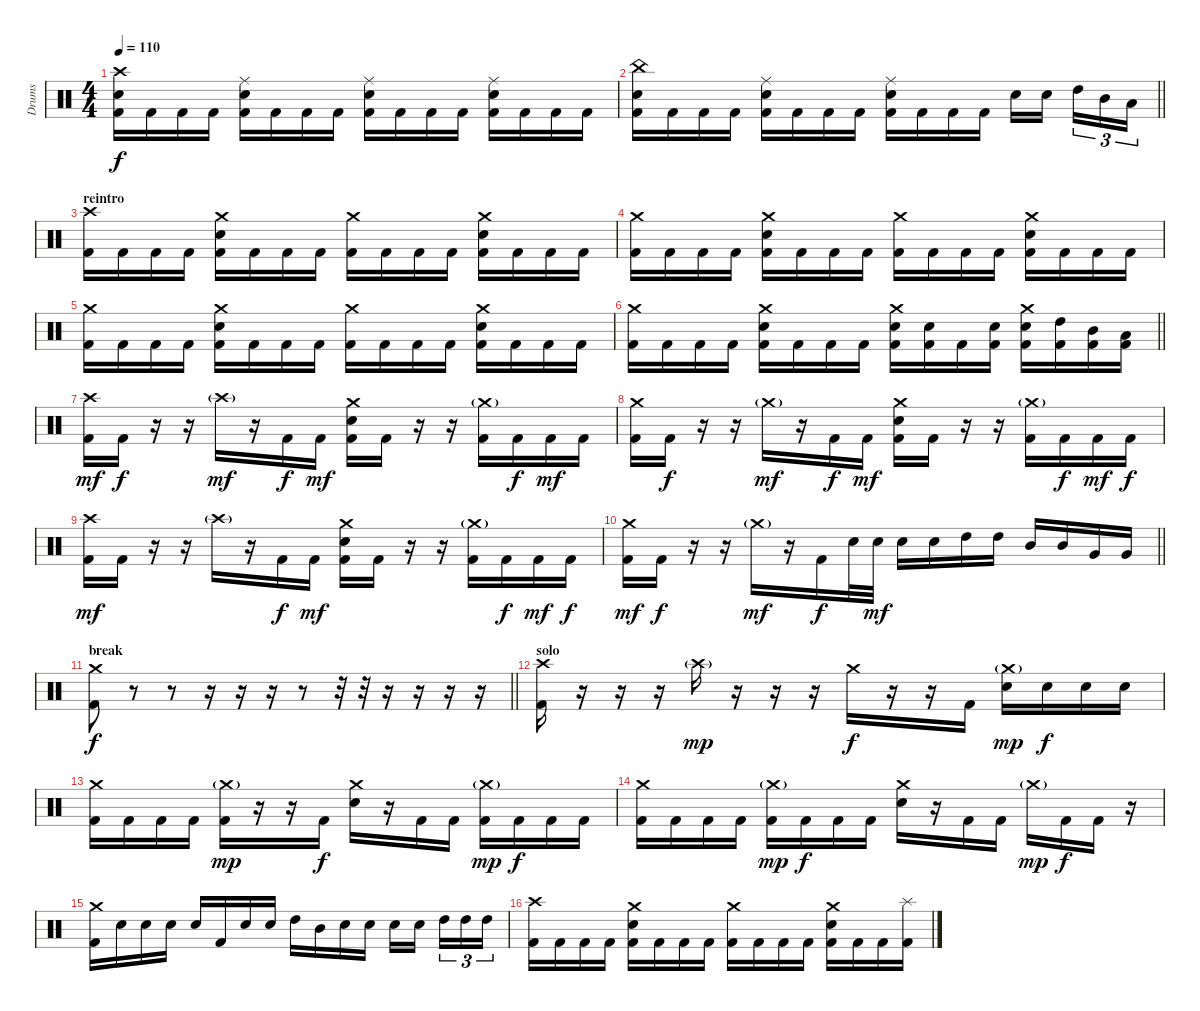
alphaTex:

\track ("Drums" "Drums") {instrument percussion}
\staff {score}
\articulation defaults
\ts (4 4)
\tempo 110
\clef neutral
\ks c
("Crash high (hit)" "Electric Snare (hit)" "Kick (hit) 2").16{dy f} "Kick (hit) 2".16 "Kick (hit) 2".16 "Kick (hit) 2".16 ("Ride (middle)" "Electric Snare (hit)" "Kick (hit) 2").16 "Kick (hit) 2".16 "Kick (hit) 2".16 "Kick (hit) 2".16 ("Ride (middle)" "Electric Snare (hit)" "Kick (hit) 2").16 "Kick (hit) 2".16 "Kick (hit) 2".16 "Kick (hit) 2".16 ("Ride (middle)" "Electric Snare (hit)" "Kick (hit) 2").16 "Kick (hit) 2".16 "Kick (hit) 2".16 "Kick (hit) 2".16 |
\barLineRight lightlight
("China (hit)" "Electric Snare (hit)" "Kick (hit) 2").16 "Kick (hit) 2".16 "Kick (hit) 2".16 "Kick (hit) 2".16 ("Ride (middle)" "Electric Snare (hit)" "Kick (hit) 2").16 "Kick (hit) 2".16 "Kick (hit) 2".16 "Kick (hit) 2".16 ("Ride (middle)" "Electric Snare (hit)" "Kick (hit) 2").16 "Kick (hit) 2".16 "Kick (hit) 2".16 "Kick (hit) 2".16 "Electric Snare (hit)".16 "Electric Snare (hit)".16{beam splitsecondary} "High Tom (hit)".16{tu (3 2)} "Mid Tom (hit)".16{tu (3 2)} "Low Tom (hit)".16{tu (3 2)} |
\section ("" "reintro")
("Crash high (hit)" "Kick (hit) 2").16 "Kick (hit) 2".16 "Kick (hit) 2".16 "Kick (hit) 2".16 ("Crash medium (hit)" "Electric Snare (hit)" "Kick (hit) 2").16 "Kick (hit) 2".16 "Kick (hit) 2".16 "Kick (hit) 2".16 ("Crash medium (hit)" "Kick (hit) 2").16 "Kick (hit) 2".16 "Kick (hit) 2".16 "Kick (hit) 2".16 ("Crash medium (hit)" "Electric Snare (hit)" "Kick (hit) 2").16 "Kick (hit) 2".16 "Kick (hit) 2".16 "Kick (hit) 2".16 |
("Crash medium (hit)" "Kick (hit) 2").16 "Kick (hit) 2".16 "Kick (hit) 2".16 "Kick (hit) 2".16 ("Crash medium (hit)" "Electric Snare (hit)" "Kick (hit) 2").16 "Kick (hit) 2".16 "Kick (hit) 2".16 "Kick (hit) 2".16 ("Crash medium (hit)" "Kick (hit) 2").16 "Kick (hit) 2".16 "Kick (hit) 2".16 "Kick (hit) 2".16 ("Crash medium (hit)" "Electric Snare (hit)" "Kick (hit) 2").16 "Kick (hit) 2".16 "Kick (hit) 2".16 "Kick (hit) 2".16 |
("Crash medium (hit)" "Kick (hit) 2").16 "Kick (hit) 2".16 "Kick (hit) 2".16 "Kick (hit) 2".16 ("Crash medium (hit)" "Electric Snare (hit)" "Kick (hit) 2").16 "Kick (hit) 2".16 "Kick (hit) 2".16 "Kick (hit) 2".16 ("Crash medium (hit)" "Kick (hit) 2").16 "Kick (hit) 2".16 "Kick (hit) 2".16 "Kick (hit) 2".16 ("Crash medium (hit)" "Electric Snare (hit)" "Kick (hit) 2").16 "Kick (hit) 2".16 "Kick (hit) 2".16 "Kick (hit) 2".16 |
\barLineRight lightlight
("Crash medium (hit)" "Kick (hit) 2").16 "Kick (hit) 2".16 "Kick (hit) 2".16 "Kick (hit) 2".16 ("Crash medium (hit)" "Electric Snare (hit)" "Kick (hit) 2").16 "Kick (hit) 2".16 "Kick (hit) 2".16 "Kick (hit) 2".16 ("Crash medium (hit)" "Electric Snare (hit)" "Kick (hit) 2").16 ("Electric Snare (hit)" "Kick (hit) 2").16 "Kick (hit) 2".16 ("Electric Snare (hit)" "Kick (hit) 2").16 ("Crash medium (hit)" "Electric Snare (hit)" "Kick (hit) 2").16 ("High Tom (hit)" "Kick (hit) 2").16 ("Mid Tom (hit)" "Kick (hit) 2").16 ("Low Tom (hit)" "Kick (hit) 2").16 |
("Crash high (hit)" "Kick (hit) 2").16{dy mf} "Kick (hit) 2".16{dy f} r.16 r.16 "Crash high (hit)"{g}.16{dy mf} r.16 "Kick (hit) 2".16{dy f} "Kick (hit) 2".16{dy mf} ("Crash medium (hit)" "Electric Snare (hit)" "Kick (hit) 2").16 "Kick (hit) 2".16 r.16 r.16 ("Crash medium (hit)"{g} "Kick (hit) 2").16 "Kick (hit) 2".16{dy f} "Kick (hit) 2".16{dy mf} "Kick (hit) 2".16 |
("Crash medium (hit)" "Kick (hit) 2").16 "Kick (hit) 2".16{dy f} r.16 r.16 "Crash medium (hit)"{g}.16{dy mf} r.16 "Kick (hit) 2".16{dy f} "Kick (hit) 2".16{dy mf} ("Crash medium (hit)" "Electric Snare (hit)" "Kick (hit) 2").16 "Kick (hit) 2".16 r.16 r.16 ("Crash medium (hit)"{g} "Kick (hit) 2").16 "Kick (hit) 2".16{dy f} "Kick (hit) 2".16{dy mf} "Kick (hit) 2".16{dy f} |
("Crash high (hit)" "Kick (hit) 2").16{dy mf} "Kick (hit) 2".16 r.16 r.16 "Crash high (hit)"{g}.16 r.16 "Kick (hit) 2".16{dy f} "Kick (hit) 2".16{dy mf} ("Crash medium (hit)" "Electric Snare (hit)" "Kick (hit) 2").16 "Kick (hit) 2".16 r.16 r.16 ("Crash medium (hit)"{g} "Kick (hit) 2").16 "Kick (hit) 2".16{dy f} "Kick (hit) 2".16{dy mf} "Kick (hit) 2".16{dy f} |
\barLineRight lightlight
("Crash medium (hit)" "Kick (hit) 2").16{dy mf} "Kick (hit) 2".16{dy f} r.16 r.16 "Crash medium (hit)"{g}.16{dy mf} r.16 "Kick (hit) 2".16{dy f} "Electric Snare (hit)".32 "Electric Snare (hit)".32{dy mf} "Electric Snare (hit)".16 "Electric Snare (hit)".16 "High Tom (hit)".16 "High Tom (hit)".16 "Mid Tom (hit)".16 "Mid Tom (hit)".16 "Very Low Tom (hit)".16 "Very Low Tom (hit)".16 |
\section ("" "break")
\barLineRight lightlight
("Crash medium (hit)" "Kick (hit) 2").8{dy f} r.8{volume 0} r.8 r.16 r.16 r.16 r.8 r.32{volume 13} r.32 r.16 r.16 r.16 r.16 |
\section ("" "solo")
("Crash high (hit)" "Kick (hit) 2").16 r.16 r.16 r.16 "Crash high (hit)"{g}.16{dy mp} r.16 r.16 r.16 "Crash medium (hit)".16{dy f} r.16 r.16 "Kick (hit) 2".16 ("Crash medium (hit)"{g} "Electric Snare (hit)").16{dy mp} "Electric Snare (hit)".16{dy f} "Electric Snare (hit)".16 "Electric Snare (hit)".16 |
("Crash medium (hit)" "Kick (hit) 2").16 "Kick (hit) 2".16 "Kick (hit) 2".16 "Kick (hit) 2".16 ("Crash medium (hit)"{g} "Kick (hit) 2").16{dy mp} r.16 r.16 "Kick (hit) 2".16{dy f} ("Crash medium (hit)" "Electric Snare (hit)").16 r.16 "Kick (hit) 2".16 "Kick (hit) 2".16 ("Crash medium (hit)"{g} "Kick (hit) 2").16{dy mp} "Kick (hit) 2".16{dy f} "Kick (hit) 2".16 "Kick (hit) 2".16 |
("Crash medium (hit)" "Kick (hit) 2").16 "Kick (hit) 2".16 "Kick (hit) 2".16 "Kick (hit) 2".16 ("Crash medium (hit)"{g} "Kick (hit) 2").16{dy mp} "Kick (hit) 2".16{dy f} "Kick (hit) 2".16 "Kick (hit) 2".16 ("Crash medium (hit)" "Electric Snare (hit)").16 r.16 "Kick (hit) 2".16 "Kick (hit) 2".16 "Crash medium (hit)"{g}.16{dy mp} "Kick (hit) 2".16{dy f} "Kick (hit) 2".16 r.16 |
("Crash medium (hit)" "Kick (hit) 2").16 "Electric Snare (hit)".16 "Electric Snare (hit)".16 "Electric Snare (hit)".16 "Electric Snare (hit)".16 "Kick (hit) 2".16 "Electric Snare (hit)".16 "Electric Snare (hit)".16 "High Tom (hit)".16 "Mid Tom (hit)".16 "Electric Snare (hit)".16 "Electric Snare (hit)".16 "Electric Snare (hit)".16 "Electric Snare (hit)".16{beam splitsecondary} "High Tom (hit)".16{tu (3 2)} "High Tom (hit)".16{tu (3 2)} "High Tom (hit)".16{tu (3 2)} |
("Crash high (hit)" "Kick (hit) 2").16 "Kick (hit) 2".16 "Kick (hit) 2".16 "Kick (hit) 2".16 ("Crash medium (hit)" "Electric Snare (hit)" "Kick (hit) 2").16 "Kick (hit) 2".16 "Kick (hit) 2".16 "Kick (hit) 2".16 ("Crash medium (hit)" "Kick (hit) 2").16 "Kick (hit) 2".16 "Kick (hit) 2".16 "Kick (hit) 2".16 ("Crash medium (hit)" "Electric Snare (hit)" "Kick (hit) 2").16 "Kick (hit) 2".16 "Kick (hit) 2".16 ("Splash (hit)" "Kick (hit) 2").16
